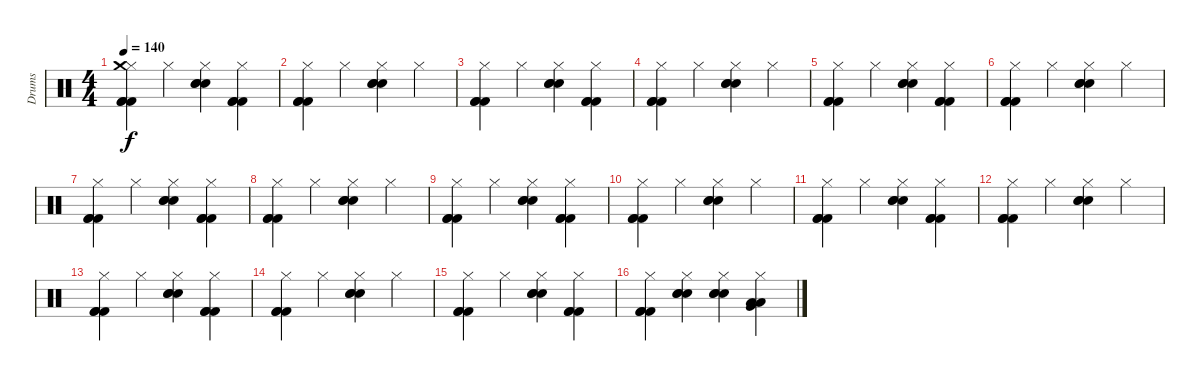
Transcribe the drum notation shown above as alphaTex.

\track ("Drums" "Drums") {instrument percussion}
\staff {score}
\articulation defaults
\ts (4 4)
\tempo 140
\clef neutral
\ks c
("Hi-Hat (closed)" "Kick (hit) 2" "Kick (hit) 2" "Kick (hit) 2" "Crash medium (hit)").4{dy f} "Hi-Hat (closed)".4 ("Hi-Hat (closed)" "Snare (hit) 2" "Snare (hit) 2" "Snare (hit) 2").4 ("Hi-Hat (closed)" "Kick (hit) 2" "Kick (hit) 2" "Kick (hit) 2").4 |
("Hi-Hat (closed)" "Kick (hit) 2" "Kick (hit) 2" "Kick (hit) 2").4 "Hi-Hat (closed)".4 ("Hi-Hat (closed)" "Snare (hit) 2" "Snare (hit) 2" "Snare (hit) 2").4 "Hi-Hat (closed)".4 |
("Hi-Hat (closed)" "Kick (hit) 2" "Kick (hit) 2" "Kick (hit) 2").4 "Hi-Hat (closed)".4 ("Hi-Hat (closed)" "Snare (hit) 2" "Snare (hit) 2" "Snare (hit) 2").4 ("Hi-Hat (closed)" "Kick (hit) 2" "Kick (hit) 2" "Kick (hit) 2").4 |
("Hi-Hat (closed)" "Kick (hit) 2" "Kick (hit) 2" "Kick (hit) 2").4 "Hi-Hat (closed)".4 ("Hi-Hat (closed)" "Snare (hit) 2" "Snare (hit) 2" "Snare (hit) 2").4 "Hi-Hat (closed)".4 |
("Hi-Hat (closed)" "Kick (hit) 2" "Kick (hit) 2" "Kick (hit) 2").4 "Hi-Hat (closed)".4 ("Hi-Hat (closed)" "Snare (hit) 2" "Snare (hit) 2" "Snare (hit) 2").4 ("Hi-Hat (closed)" "Kick (hit) 2" "Kick (hit) 2" "Kick (hit) 2").4 |
("Hi-Hat (closed)" "Kick (hit) 2" "Kick (hit) 2" "Kick (hit) 2").4 "Hi-Hat (closed)".4 ("Hi-Hat (closed)" "Snare (hit) 2" "Snare (hit) 2" "Snare (hit) 2").4 "Hi-Hat (closed)".4 |
("Hi-Hat (closed)" "Kick (hit) 2" "Kick (hit) 2" "Kick (hit) 2").4 "Hi-Hat (closed)".4 ("Hi-Hat (closed)" "Snare (hit) 2" "Snare (hit) 2" "Snare (hit) 2").4 ("Hi-Hat (closed)" "Kick (hit) 2" "Kick (hit) 2" "Kick (hit) 2").4 |
("Hi-Hat (closed)" "Kick (hit) 2" "Kick (hit) 2" "Kick (hit) 2").4 "Hi-Hat (closed)".4 ("Hi-Hat (closed)" "Snare (hit) 2" "Snare (hit) 2" "Snare (hit) 2").4 "Hi-Hat (closed)".4 |
("Hi-Hat (closed)" "Kick (hit) 2" "Kick (hit) 2" "Kick (hit) 2").4 "Hi-Hat (closed)".4 ("Hi-Hat (closed)" "Snare (hit) 2" "Snare (hit) 2" "Snare (hit) 2").4 ("Hi-Hat (closed)" "Kick (hit) 2" "Kick (hit) 2" "Kick (hit) 2").4 |
("Hi-Hat (closed)" "Kick (hit) 2" "Kick (hit) 2" "Kick (hit) 2").4 "Hi-Hat (closed)".4 ("Hi-Hat (closed)" "Snare (hit) 2" "Snare (hit) 2" "Snare (hit) 2").4 "Hi-Hat (closed)".4 |
("Hi-Hat (closed)" "Kick (hit) 2" "Kick (hit) 2" "Kick (hit) 2").4 "Hi-Hat (closed)".4 ("Hi-Hat (closed)" "Snare (hit) 2" "Snare (hit) 2" "Snare (hit) 2").4 ("Hi-Hat (closed)" "Kick (hit) 2" "Kick (hit) 2" "Kick (hit) 2").4 |
("Hi-Hat (closed)" "Kick (hit) 2" "Kick (hit) 2" "Kick (hit) 2").4 "Hi-Hat (closed)".4 ("Hi-Hat (closed)" "Snare (hit) 2" "Snare (hit) 2" "Snare (hit) 2").4 "Hi-Hat (closed)".4 |
("Hi-Hat (closed)" "Kick (hit) 2" "Kick (hit) 2" "Kick (hit) 2").4 "Hi-Hat (closed)".4 ("Hi-Hat (closed)" "Snare (hit) 2" "Snare (hit) 2" "Snare (hit) 2").4 ("Hi-Hat (closed)" "Kick (hit) 2" "Kick (hit) 2" "Kick (hit) 2").4 |
("Hi-Hat (closed)" "Kick (hit) 2" "Kick (hit) 2" "Kick (hit) 2").4 "Hi-Hat (closed)".4 ("Hi-Hat (closed)" "Snare (hit) 2" "Snare (hit) 2" "Snare (hit) 2").4 "Hi-Hat (closed)".4 |
("Hi-Hat (closed)" "Kick (hit) 2" "Kick (hit) 2" "Kick (hit) 2").4 "Hi-Hat (closed)".4 ("Hi-Hat (closed)" "Snare (hit) 2" "Snare (hit) 2" "Snare (hit) 2").4 ("Hi-Hat (closed)" "Kick (hit) 2" "Kick (hit) 2" "Kick (hit) 2").4 |
("Hi-Hat (closed)" "Kick (hit) 2" "Kick (hit) 2" "Kick (hit) 2").4 ("Hi-Hat (closed)" "Snare (hit) 2" "Snare (hit) 2" "Snare (hit) 2").4 ("Hi-Hat (closed)" "Snare (hit) 2" "Snare (hit) 2" "Snare (hit) 2").4 ("Hi-Hat (closed)" "Low Tom (hit)" "Very Low Tom (hit)" "Low Floor Tom (hit)").4
